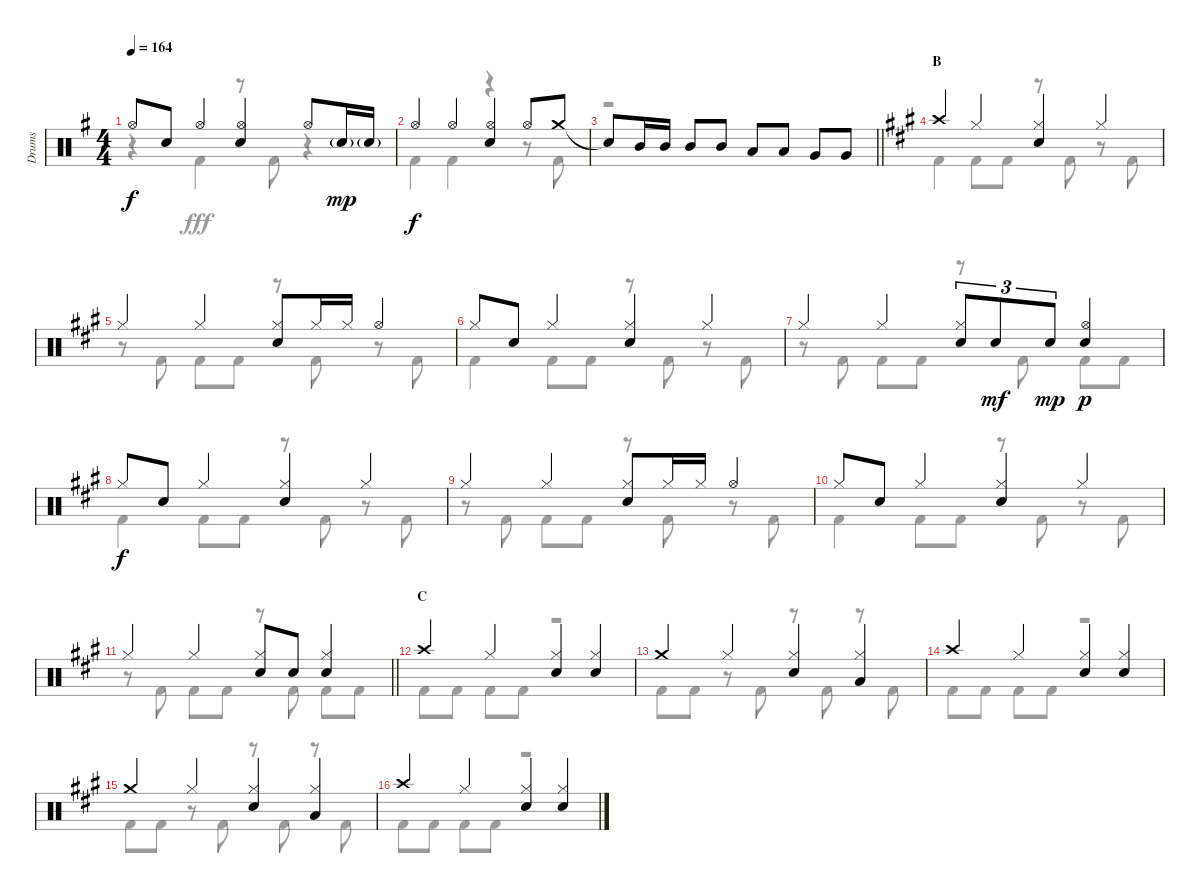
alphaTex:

\track ("Drums" "Drums") {instrument percussion}
\staff {score}
\articulation defaults
\voice
\ts (4 4)
\tempo 164
\clef neutral
\ks g "Hi-Hat (open)".8{dy f} "Snare (hit) 2".8 "Hi-Hat (open)".4
("Hi-Hat (open)" "Snare (hit) 2").4 "Hi-Hat (open)".8 "Snare (hit) 2"{g}.16{dy mp} "Snare (hit) 2"{g}.16 |
"Hi-Hat (open)".4{dy f} "Hi-Hat (open)".4 ("Hi-Hat (open)" "Snare (hit) 2").4 "Hi-Hat (open)".8 "Crash medium (hit)".8 |
\barLineRight lightlight "Snare (hit)"{t}.8 "Mid Tom (hit)".16 "Mid Tom (hit)".16 "Mid Tom (hit)".8 "Mid Tom (hit)".8 "Low Tom (hit)".8 "Low Tom (hit)".8 "Very Low Tom (hit)".8 "Very Low Tom (hit)".8
|
\section ("" "B")
\ks a "Crash high (hit)".4 "Hi-Hat (closed)".4
("Hi-Hat (closed)" "Snare (hit) 2").4 "Hi-Hat (closed)".4 |
"Hi-Hat (closed)".4 "Hi-Hat (closed)".4 ("Hi-Hat (closed)" "Snare (hit) 2").8 "Hi-Hat (closed)".16 "Hi-Hat (closed)".16 "Hi-Hat (open)".4 |
"Hi-Hat (closed)".8 "Snare (hit) 2".8 "Hi-Hat (closed)".4 ("Hi-Hat (closed)" "Snare (hit) 2").4 "Hi-Hat (closed)".4 |
"Hi-Hat (closed)".4 "Hi-Hat (closed)".4 ("Hi-Hat (closed)" "Snare (hit) 2").8{tu (3 2)} "Snare (hit) 2".8{tu (3 2) dy mf} "Snare (hit) 2".8{tu (3 2) dy mp} ("Hi-Hat (open)" "Snare (hit) 2").4{dy p} |
"Hi-Hat (closed)".8{dy f} "Snare (hit) 2".8 "Hi-Hat (closed)".4 ("Hi-Hat (closed)" "Snare (hit) 2").4 "Hi-Hat (closed)".4 |
"Hi-Hat (closed)".4 "Hi-Hat (closed)".4 ("Hi-Hat (closed)" "Snare (hit) 2").8 "Hi-Hat (closed)".16 "Hi-Hat (closed)".16 "Hi-Hat (open)".4 |
"Hi-Hat (closed)".8 "Snare (hit) 2".8 "Hi-Hat (closed)".4 ("Hi-Hat (closed)" "Snare (hit) 2").4 "Hi-Hat (closed)".4 |
\barLineRight lightlight "Hi-Hat (closed)".4 "Hi-Hat (closed)".4
("Hi-Hat (closed)" "Snare (hit) 2").8 "Snare (hit) 2".8 ("Hi-Hat (closed)" "Snare (hit) 2").4 |
\section ("" "C")
"Crash high (hit)".4 "Hi-Hat (closed)".4 ("Hi-Hat (closed)" "Snare (hit) 2").4 ("Hi-Hat (closed)" "Snare (hit) 2").4 |
"Crash medium (hit)".4 "Hi-Hat (closed)".4 ("Hi-Hat (closed)" "Snare (hit) 2").4 ("Hi-Hat (closed)" "Low Tom (hit)").4 |
"Crash high (hit)".4 "Hi-Hat (closed)".4 ("Hi-Hat (closed)" "Snare (hit) 2").4 ("Hi-Hat (closed)" "Snare (hit) 2").4 |
"Crash medium (hit)".4 "Hi-Hat (closed)".4 ("Hi-Hat (closed)" "Snare (hit) 2").4 ("Hi-Hat (closed)" "Low Tom (hit)").4 |
"Crash high (hit)".4 "Hi-Hat (closed)".4 ("Hi-Hat (closed)" "Snare (hit) 2").4 ("Hi-Hat (closed)" "Snare (hit) 2").4
\voice
\clef neutral
\ottava regular
\simile none
\ks g
r.4{dy fff} "Kick (hit) 2".4 r.8 "Kick (hit) 2".8 r.4 |
"Kick (hit) 2".4 "Kick (hit) 2".4 r.4 r.8 "Kick (hit) 2".8 |
\barLineRight lightlight
r.1 |
\ks a "Kick (hit) 2".4 "Kick (hit) 2".8 "Kick (hit) 2".8
r.8 "Kick (hit) 2".8 r.8 "Kick (hit) 2".8 |
r.8 "Kick (hit) 2".8 "Kick (hit) 2".8 "Kick (hit) 2".8 r.8 "Kick (hit) 2".8 r.8 "Kick (hit) 2".8 |
"Kick (hit) 2".4 "Kick (hit) 2".8 "Kick (hit) 2".8 r.8 "Kick (hit) 2".8 r.8 "Kick (hit) 2".8 |
r.8 "Kick (hit) 2".8 "Kick (hit) 2".8 "Kick (hit) 2".8 r.8 "Kick (hit) 2".8 "Kick (hit) 2".8 "Kick (hit) 2".8 |
"Kick (hit) 2".4 "Kick (hit) 2".8 "Kick (hit) 2".8 r.8 "Kick (hit) 2".8 r.8 "Kick (hit) 2".8 |
r.8 "Kick (hit) 2".8 "Kick (hit) 2".8 "Kick (hit) 2".8 r.8 "Kick (hit) 2".8 r.8 "Kick (hit) 2".8 |
"Kick (hit) 2".4 "Kick (hit) 2".8 "Kick (hit) 2".8 r.8 "Kick (hit) 2".8 r.8 "Kick (hit) 2".8 |
\barLineRight lightlight
r.8 "Kick (hit) 2".8 "Kick (hit) 2".8 "Kick (hit) 2".8 r.8 "Kick (hit) 2".8 "Kick (hit) 2".8 "Kick (hit) 2".8 |
"Kick (hit) 2".8 "Kick (hit) 2".8 "Kick (hit) 2".8 "Kick (hit) 2".8 r.2 |
"Kick (hit) 2".8 "Kick (hit) 2".8 r.8 "Kick (hit) 2".8 r.8 "Kick (hit) 2".8 r.8 "Kick (hit) 2".8 |
"Kick (hit) 2".8 "Kick (hit) 2".8 "Kick (hit) 2".8 "Kick (hit) 2".8 r.2 |
"Kick (hit) 2".8 "Kick (hit) 2".8 r.8 "Kick (hit) 2".8 r.8 "Kick (hit) 2".8 r.8 "Kick (hit) 2".8 |
"Kick (hit) 2".8 "Kick (hit) 2".8 "Kick (hit) 2".8 "Kick (hit) 2".8 r.2
